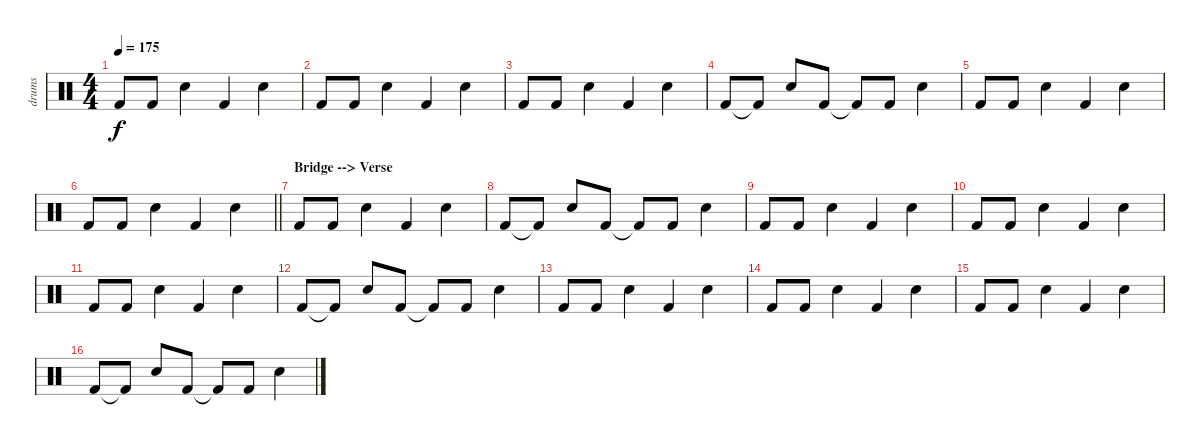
\track ("drums" "drums") {instrument percussion}
\staff {score}
\articulation defaults
\ts (4 4)
\tempo 175
\clef neutral
\ks c "Kick (hit) 2".8{dy f} "Kick (hit) 2".8 "Snare (hit) 2".4 "Kick (hit) 2".4 "Snare (hit) 2".4
|
"Kick (hit) 2".8 "Kick (hit) 2".8 "Snare (hit) 2".4 "Kick (hit) 2".4 "Snare (hit) 2".4 |
"Kick (hit) 2".8 "Kick (hit) 2".8 "Snare (hit) 2".4 "Kick (hit) 2".4 "Snare (hit) 2".4 |
"Kick (hit) 2".8 "Kick (hit) 2"{t}.8 "Snare (hit) 2".8 "Kick (hit) 2".8 "Kick (hit) 2"{t}.8 "Kick (hit) 2".8 "Snare (hit) 2".4 |
"Kick (hit) 2".8 "Kick (hit) 2".8 "Snare (hit) 2".4 "Kick (hit) 2".4 "Snare (hit) 2".4 |
\barLineRight lightlight "Kick (hit) 2".8 "Kick (hit) 2".8 "Snare (hit) 2".4 "Kick (hit) 2".4 "Snare (hit) 2".4
|
\section ("" "Bridge --> Verse")
"Kick (hit) 2".8 "Kick (hit) 2".8 "Snare (hit) 2".4 "Kick (hit) 2".4 "Snare (hit) 2".4 |
"Kick (hit) 2".8 "Kick (hit) 2"{t}.8 "Snare (hit) 2".8 "Kick (hit) 2".8 "Kick (hit) 2"{t}.8 "Kick (hit) 2".8 "Snare (hit) 2".4 |
"Kick (hit) 2".8 "Kick (hit) 2".8 "Snare (hit) 2".4 "Kick (hit) 2".4 "Snare (hit) 2".4 |
"Kick (hit) 2".8 "Kick (hit) 2".8 "Snare (hit) 2".4 "Kick (hit) 2".4 "Snare (hit) 2".4 |
"Kick (hit) 2".8 "Kick (hit) 2".8 "Snare (hit) 2".4 "Kick (hit) 2".4 "Snare (hit) 2".4 |
"Kick (hit) 2".8 "Kick (hit) 2"{t}.8 "Snare (hit) 2".8 "Kick (hit) 2".8 "Kick (hit) 2"{t}.8 "Kick (hit) 2".8 "Snare (hit) 2".4 |
"Kick (hit) 2".8 "Kick (hit) 2".8 "Snare (hit) 2".4 "Kick (hit) 2".4 "Snare (hit) 2".4 |
"Kick (hit) 2".8 "Kick (hit) 2".8 "Snare (hit) 2".4 "Kick (hit) 2".4 "Snare (hit) 2".4 |
"Kick (hit) 2".8 "Kick (hit) 2".8 "Snare (hit) 2".4 "Kick (hit) 2".4 "Snare (hit) 2".4 |
"Kick (hit) 2".8 "Kick (hit) 2"{t}.8 "Snare (hit) 2".8 "Kick (hit) 2".8 "Kick (hit) 2"{t}.8 "Kick (hit) 2".8 "Snare (hit) 2".4
